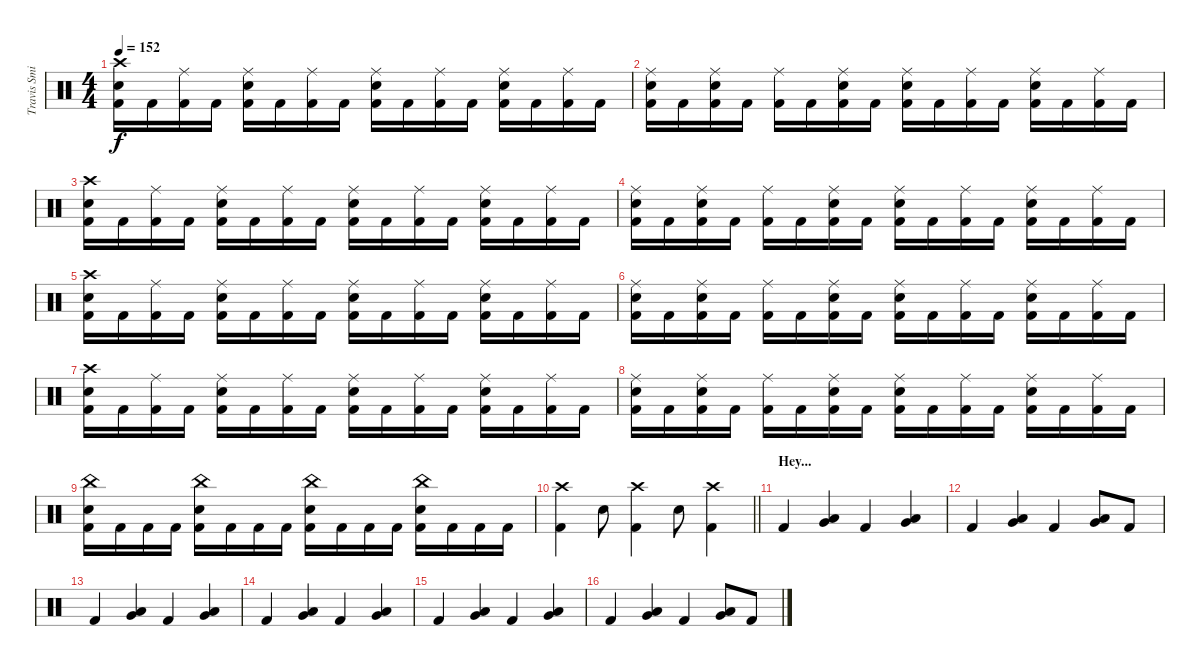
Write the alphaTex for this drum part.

\track ("Travis Smith" "Travis Smi") {instrument percussion}
\staff {score}
\articulation defaults
\ts (4 4)
\tempo 152
\clef neutral
\ks c
("Kick (hit) 2" "Crash high (hit)" "Snare (hit) 2").16{dy f} "Kick (hit) 2".16 ("Kick (hit) 2" "Ride (middle)").16 "Kick (hit) 2".16 ("Kick (hit) 2" "Ride (middle)" "Snare (hit) 2").16 "Kick (hit) 2".16 ("Kick (hit) 2" "Ride (middle)").16 "Kick (hit) 2".16 ("Kick (hit) 2" "Ride (middle)" "Snare (hit) 2").16 "Kick (hit) 2".16 ("Kick (hit) 2" "Ride (middle)").16 "Kick (hit) 2".16 ("Kick (hit) 2" "Ride (middle)" "Snare (hit) 2").16 "Kick (hit) 2".16 ("Kick (hit) 2" "Ride (middle)").16 "Kick (hit) 2".16 |
("Kick (hit) 2" "Ride (middle)" "Snare (hit) 2").16 "Kick (hit) 2".16 ("Kick (hit) 2" "Ride (middle)" "Snare (hit) 2").16 "Kick (hit) 2".16 ("Kick (hit) 2" "Ride (middle)").16 "Kick (hit) 2".16 ("Kick (hit) 2" "Ride (middle)" "Snare (hit) 2").16 "Kick (hit) 2".16 ("Kick (hit) 2" "Ride (middle)" "Snare (hit) 2").16 "Kick (hit) 2".16 ("Kick (hit) 2" "Ride (middle)").16 "Kick (hit) 2".16 ("Kick (hit) 2" "Ride (middle)" "Snare (hit) 2").16 "Kick (hit) 2".16 ("Kick (hit) 2" "Ride (middle)").16 "Kick (hit) 2".16 |
("Kick (hit) 2" "Crash high (hit)" "Snare (hit) 2").16 "Kick (hit) 2".16 ("Kick (hit) 2" "Ride (middle)").16 "Kick (hit) 2".16 ("Kick (hit) 2" "Ride (middle)" "Snare (hit) 2").16 "Kick (hit) 2".16 ("Kick (hit) 2" "Ride (middle)").16 "Kick (hit) 2".16 ("Kick (hit) 2" "Ride (middle)" "Snare (hit) 2").16 "Kick (hit) 2".16 ("Kick (hit) 2" "Ride (middle)").16 "Kick (hit) 2".16 ("Kick (hit) 2" "Ride (middle)" "Snare (hit) 2").16 "Kick (hit) 2".16 ("Kick (hit) 2" "Ride (middle)").16 "Kick (hit) 2".16 |
("Kick (hit) 2" "Ride (middle)" "Snare (hit) 2").16 "Kick (hit) 2".16 ("Kick (hit) 2" "Ride (middle)" "Snare (hit) 2").16 "Kick (hit) 2".16 ("Kick (hit) 2" "Ride (middle)").16 "Kick (hit) 2".16 ("Kick (hit) 2" "Ride (middle)" "Snare (hit) 2").16 "Kick (hit) 2".16 ("Kick (hit) 2" "Ride (middle)" "Snare (hit) 2").16 "Kick (hit) 2".16 ("Kick (hit) 2" "Ride (middle)").16 "Kick (hit) 2".16 ("Kick (hit) 2" "Ride (middle)" "Snare (hit) 2").16 "Kick (hit) 2".16 ("Kick (hit) 2" "Ride (middle)").16 "Kick (hit) 2".16 |
("Kick (hit) 2" "Crash high (hit)" "Snare (hit) 2").16 "Kick (hit) 2".16 ("Kick (hit) 2" "Ride (middle)").16 "Kick (hit) 2".16 ("Kick (hit) 2" "Ride (middle)" "Snare (hit) 2").16 "Kick (hit) 2".16 ("Kick (hit) 2" "Ride (middle)").16 "Kick (hit) 2".16 ("Kick (hit) 2" "Ride (middle)" "Snare (hit) 2").16 "Kick (hit) 2".16 ("Kick (hit) 2" "Ride (middle)").16 "Kick (hit) 2".16 ("Kick (hit) 2" "Ride (middle)" "Snare (hit) 2").16 "Kick (hit) 2".16 ("Kick (hit) 2" "Ride (middle)").16 "Kick (hit) 2".16 |
("Kick (hit) 2" "Ride (middle)" "Snare (hit) 2").16 "Kick (hit) 2".16 ("Kick (hit) 2" "Ride (middle)" "Snare (hit) 2").16 "Kick (hit) 2".16 ("Kick (hit) 2" "Ride (middle)").16 "Kick (hit) 2".16 ("Kick (hit) 2" "Ride (middle)" "Snare (hit) 2").16 "Kick (hit) 2".16 ("Kick (hit) 2" "Ride (middle)" "Snare (hit) 2").16 "Kick (hit) 2".16 ("Kick (hit) 2" "Ride (middle)").16 "Kick (hit) 2".16 ("Kick (hit) 2" "Ride (middle)" "Snare (hit) 2").16 "Kick (hit) 2".16 ("Kick (hit) 2" "Ride (middle)").16 "Kick (hit) 2".16 |
("Kick (hit) 2" "Crash high (hit)" "Snare (hit) 2").16 "Kick (hit) 2".16 ("Kick (hit) 2" "Ride (middle)").16 "Kick (hit) 2".16 ("Kick (hit) 2" "Ride (middle)" "Snare (hit) 2").16 "Kick (hit) 2".16 ("Kick (hit) 2" "Ride (middle)").16 "Kick (hit) 2".16 ("Kick (hit) 2" "Ride (middle)" "Snare (hit) 2").16 "Kick (hit) 2".16 ("Kick (hit) 2" "Ride (middle)").16 "Kick (hit) 2".16 ("Kick (hit) 2" "Ride (middle)" "Snare (hit) 2").16 "Kick (hit) 2".16 ("Kick (hit) 2" "Ride (middle)").16 "Kick (hit) 2".16 |
("Kick (hit) 2" "Ride (middle)" "Snare (hit) 2").16 "Kick (hit) 2".16 ("Kick (hit) 2" "Ride (middle)" "Snare (hit) 2").16 "Kick (hit) 2".16 ("Kick (hit) 2" "Ride (middle)").16 "Kick (hit) 2".16 ("Kick (hit) 2" "Ride (middle)" "Snare (hit) 2").16 "Kick (hit) 2".16 ("Kick (hit) 2" "Ride (middle)" "Snare (hit) 2").16 "Kick (hit) 2".16 ("Kick (hit) 2" "Ride (middle)").16 "Kick (hit) 2".16 ("Kick (hit) 2" "Ride (middle)" "Snare (hit) 2").16 "Kick (hit) 2".16 ("Kick (hit) 2" "Ride (middle)").16 "Kick (hit) 2".16 |
("Kick (hit) 2" "China (hit)" "Snare (hit) 2").16 "Kick (hit) 2".16 "Kick (hit) 2".16 "Kick (hit) 2".16 ("Kick (hit) 2" "China (hit)" "Snare (hit) 2").16 "Kick (hit) 2".16 "Kick (hit) 2".16 "Kick (hit) 2".16 ("Kick (hit) 2" "China (hit)" "Snare (hit) 2").16 "Kick (hit) 2".16 "Kick (hit) 2".16 "Kick (hit) 2".16 ("Kick (hit) 2" "China (hit)" "Snare (hit) 2").16 "Kick (hit) 2".16 "Kick (hit) 2".16 "Kick (hit) 2".16 |
\barLineRight lightlight
("Kick (hit) 2" "Crash high (hit)").4 "Snare (hit) 2".8 ("Kick (hit) 2" "Crash high (hit)").4 "Snare (hit) 2".8 ("Kick (hit) 2" "Crash high (hit)").4 |
\section ("" "Hey...")
"Kick (hit) 2".4 ("Low Tom (hit)" "Very Low Tom (hit)").4 "Kick (hit) 2".4 ("Low Tom (hit)" "Very Low Tom (hit)").4 |
"Kick (hit) 2".4 ("Low Tom (hit)" "Very Low Tom (hit)").4 "Kick (hit) 2".4 ("Low Tom (hit)" "Very Low Tom (hit)").8 "Kick (hit) 2".8 |
"Kick (hit) 2".4 ("Low Tom (hit)" "Very Low Tom (hit)").4 "Kick (hit) 2".4 ("Low Tom (hit)" "Very Low Tom (hit)").4 |
"Kick (hit) 2".4 ("Low Tom (hit)" "Very Low Tom (hit)").4 "Kick (hit) 2".4 ("Low Tom (hit)" "Very Low Tom (hit)").4 |
"Kick (hit) 2".4 ("Low Tom (hit)" "Very Low Tom (hit)").4 "Kick (hit) 2".4 ("Low Tom (hit)" "Very Low Tom (hit)").4 |
"Kick (hit) 2".4 ("Low Tom (hit)" "Very Low Tom (hit)").4 "Kick (hit) 2".4 ("Low Tom (hit)" "Very Low Tom (hit)").8 "Kick (hit) 2".8
